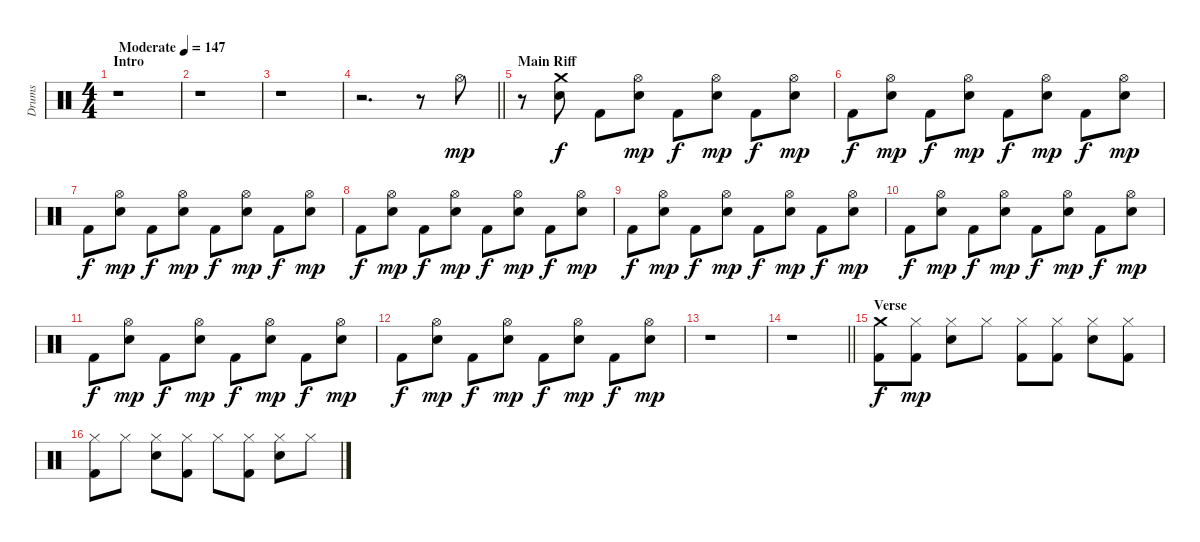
\track ("Drums" "Drums") {instrument percussion}
\staff {score}
\articulation defaults
\ts (4 4)
\section ("" "Intro")
\tempo (147 "Moderate")
\clef neutral
\ks c
r.1{dy mp} |
r.1 |
r.1 |
\barLineRight lightlight
r.2{d} r.8 "Hi-Hat (open)".8 |
\section ("" "Main Riff")
r.8 ("Crash medium (hit)" "Snare (hit) 2").8{dy f} "Kick (hit) 2".8 ("Hi-Hat (open)" "Snare (hit) 2").8{dy mp} "Kick (hit) 2".8{dy f} ("Hi-Hat (open)" "Snare (hit) 2").8{dy mp} "Kick (hit) 2".8{dy f} ("Hi-Hat (open)" "Snare (hit) 2").8{dy mp} |
"Kick (hit) 2".8{dy f} ("Hi-Hat (open)" "Snare (hit) 2").8{dy mp} "Kick (hit) 2".8{dy f} ("Hi-Hat (open)" "Snare (hit) 2").8{dy mp} "Kick (hit) 2".8{dy f} ("Hi-Hat (open)" "Snare (hit) 2").8{dy mp} "Kick (hit) 2".8{dy f} ("Hi-Hat (open)" "Snare (hit) 2").8{dy mp} |
"Kick (hit) 2".8{dy f} ("Hi-Hat (open)" "Snare (hit) 2").8{dy mp} "Kick (hit) 2".8{dy f} ("Hi-Hat (open)" "Snare (hit) 2").8{dy mp} "Kick (hit) 2".8{dy f} ("Hi-Hat (open)" "Snare (hit) 2").8{dy mp} "Kick (hit) 2".8{dy f} ("Hi-Hat (open)" "Snare (hit) 2").8{dy mp} |
"Kick (hit) 2".8{dy f} ("Hi-Hat (open)" "Snare (hit) 2").8{dy mp} "Kick (hit) 2".8{dy f} ("Hi-Hat (open)" "Snare (hit) 2").8{dy mp} "Kick (hit) 2".8{dy f} ("Hi-Hat (open)" "Snare (hit) 2").8{dy mp} "Kick (hit) 2".8{dy f} ("Hi-Hat (open)" "Snare (hit) 2").8{dy mp} |
"Kick (hit) 2".8{dy f} ("Hi-Hat (open)" "Snare (hit) 2").8{dy mp} "Kick (hit) 2".8{dy f} ("Hi-Hat (open)" "Snare (hit) 2").8{dy mp} "Kick (hit) 2".8{dy f} ("Hi-Hat (open)" "Snare (hit) 2").8{dy mp} "Kick (hit) 2".8{dy f} ("Hi-Hat (open)" "Snare (hit) 2").8{dy mp} |
"Kick (hit) 2".8{dy f} ("Hi-Hat (open)" "Snare (hit) 2").8{dy mp} "Kick (hit) 2".8{dy f} ("Hi-Hat (open)" "Snare (hit) 2").8{dy mp} "Kick (hit) 2".8{dy f} ("Hi-Hat (open)" "Snare (hit) 2").8{dy mp} "Kick (hit) 2".8{dy f} ("Hi-Hat (open)" "Snare (hit) 2").8{dy mp} |
"Kick (hit) 2".8{dy f} ("Hi-Hat (open)" "Snare (hit) 2").8{dy mp} "Kick (hit) 2".8{dy f} ("Hi-Hat (open)" "Snare (hit) 2").8{dy mp} "Kick (hit) 2".8{dy f} ("Hi-Hat (open)" "Snare (hit) 2").8{dy mp} "Kick (hit) 2".8{dy f} ("Hi-Hat (open)" "Snare (hit) 2").8{dy mp} |
"Kick (hit) 2".8{dy f} ("Hi-Hat (open)" "Snare (hit) 2").8{dy mp} "Kick (hit) 2".8{dy f} ("Hi-Hat (open)" "Snare (hit) 2").8{dy mp} "Kick (hit) 2".8{dy f} ("Hi-Hat (open)" "Snare (hit) 2").8{dy mp} "Kick (hit) 2".8{dy f} ("Hi-Hat (open)" "Snare (hit) 2").8{dy mp} |
r.1 |
\barLineRight lightlight
r.1 |
\section ("" "Verse")
("Crash medium (hit)" "Kick (hit) 2").8{dy f} ("Hi-Hat (closed)" "Kick (hit) 2").8{dy mp} ("Hi-Hat (closed)" "Snare (hit) 2").8 "Hi-Hat (closed)".8 ("Hi-Hat (closed)" "Kick (hit) 2").8 ("Hi-Hat (closed)" "Kick (hit) 2").8 ("Hi-Hat (closed)" "Snare (hit) 2").8 ("Hi-Hat (closed)" "Kick (hit) 2").8 |
("Hi-Hat (closed)" "Kick (hit) 2").8 "Hi-Hat (closed)".8 ("Hi-Hat (closed)" "Snare (hit) 2").8 ("Hi-Hat (closed)" "Kick (hit) 2").8 "Hi-Hat (closed)".8 ("Hi-Hat (closed)" "Kick (hit) 2").8 ("Hi-Hat (closed)" "Snare (hit) 2").8 "Hi-Hat (closed)".8
